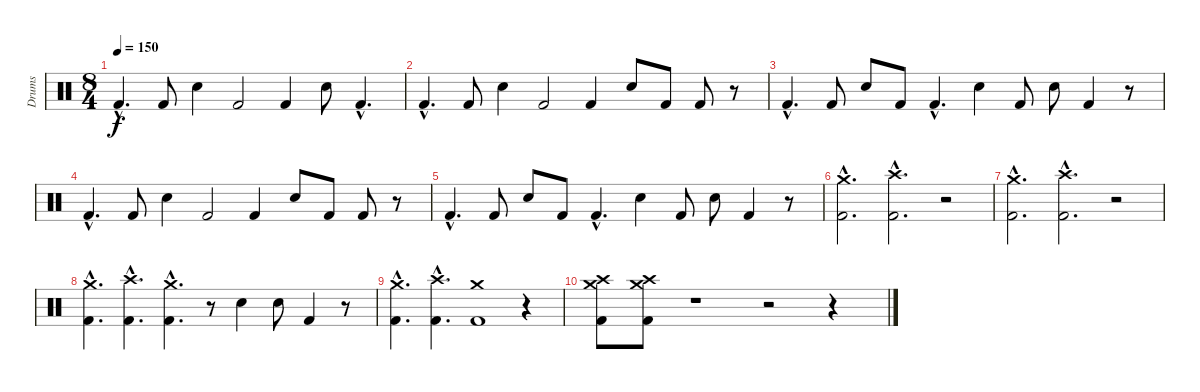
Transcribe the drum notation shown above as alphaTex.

\track ("Drums" "Drums") {instrument percussion}
\staff {score}
\articulation defaults
\ts (8 4)
\tempo 150
\clef neutral
\ks c "Kick (hit) 2"{hac}.4{d dy f} "Kick (hit) 2".8 "Snare (hit) 2".4 "Kick (hit) 2".2 "Kick (hit) 2".4 "Snare (hit) 2".8 "Kick (hit) 2"{hac}.4{d}
|
"Kick (hit) 2"{hac}.4{d} "Kick (hit) 2".8 "Snare (hit) 2".4 "Kick (hit) 2".2 "Kick (hit) 2".4 "Snare (hit) 2".8 "Kick (hit) 2".8 "Kick (hit) 2".8 r.8 |
"Kick (hit) 2"{hac}.4{d} "Kick (hit) 2".8 "Snare (hit) 2".8 "Kick (hit) 2".8 "Kick (hit) 2"{hac}.4{d} "Snare (hit) 2".4 "Kick (hit) 2".8 "Snare (hit) 2".8 "Kick (hit) 2".4 r.8 |
"Kick (hit) 2"{hac}.4{d} "Kick (hit) 2".8 "Snare (hit) 2".4 "Kick (hit) 2".2 "Kick (hit) 2".4 "Snare (hit) 2".8 "Kick (hit) 2".8 "Kick (hit) 2".8 r.8 |
"Kick (hit) 2"{hac}.4{d} "Kick (hit) 2".8 "Snare (hit) 2".8 "Kick (hit) 2".8 "Kick (hit) 2"{hac}.4{d} "Snare (hit) 2".4 "Kick (hit) 2".8 "Snare (hit) 2".8 "Kick (hit) 2".4 r.8 |
("Crash medium (hit)"{hac} "Kick (hit) 2"{hac}).2{d} ("Crash high (hit)"{hac} "Kick (hit) 2"{hac}).2{d} r.2 |
("Crash medium (hit)"{hac} "Kick (hit) 2"{hac}).2{d} ("Crash high (hit)"{hac} "Kick (hit) 2"{hac}).2{d} r.2 |
("Crash medium (hit)"{hac} "Kick (hit) 2"{hac}).4{d} ("Crash high (hit)"{hac} "Kick (hit) 2"{hac}).4{d} ("Crash medium (hit)"{hac} "Kick (hit) 2"{hac}).4{d} r.8 "Snare (hit) 2".4 "Snare (hit) 2".8 "Kick (hit) 2".4 r.8 |
("Crash medium (hit)"{hac} "Kick (hit) 2"{hac}).4{d} ("Crash high (hit)"{hac} "Kick (hit) 2"{hac}).4{d} ("Kick (hit) 2" "Crash medium (hit)").1 r.4 |
("Kick (hit) 2" "Crash medium (hit)" "Crash high (hit)").8 ("Kick (hit) 2" "Crash medium (hit)" "Crash high (hit)").8 r.1 r.2 r.4
